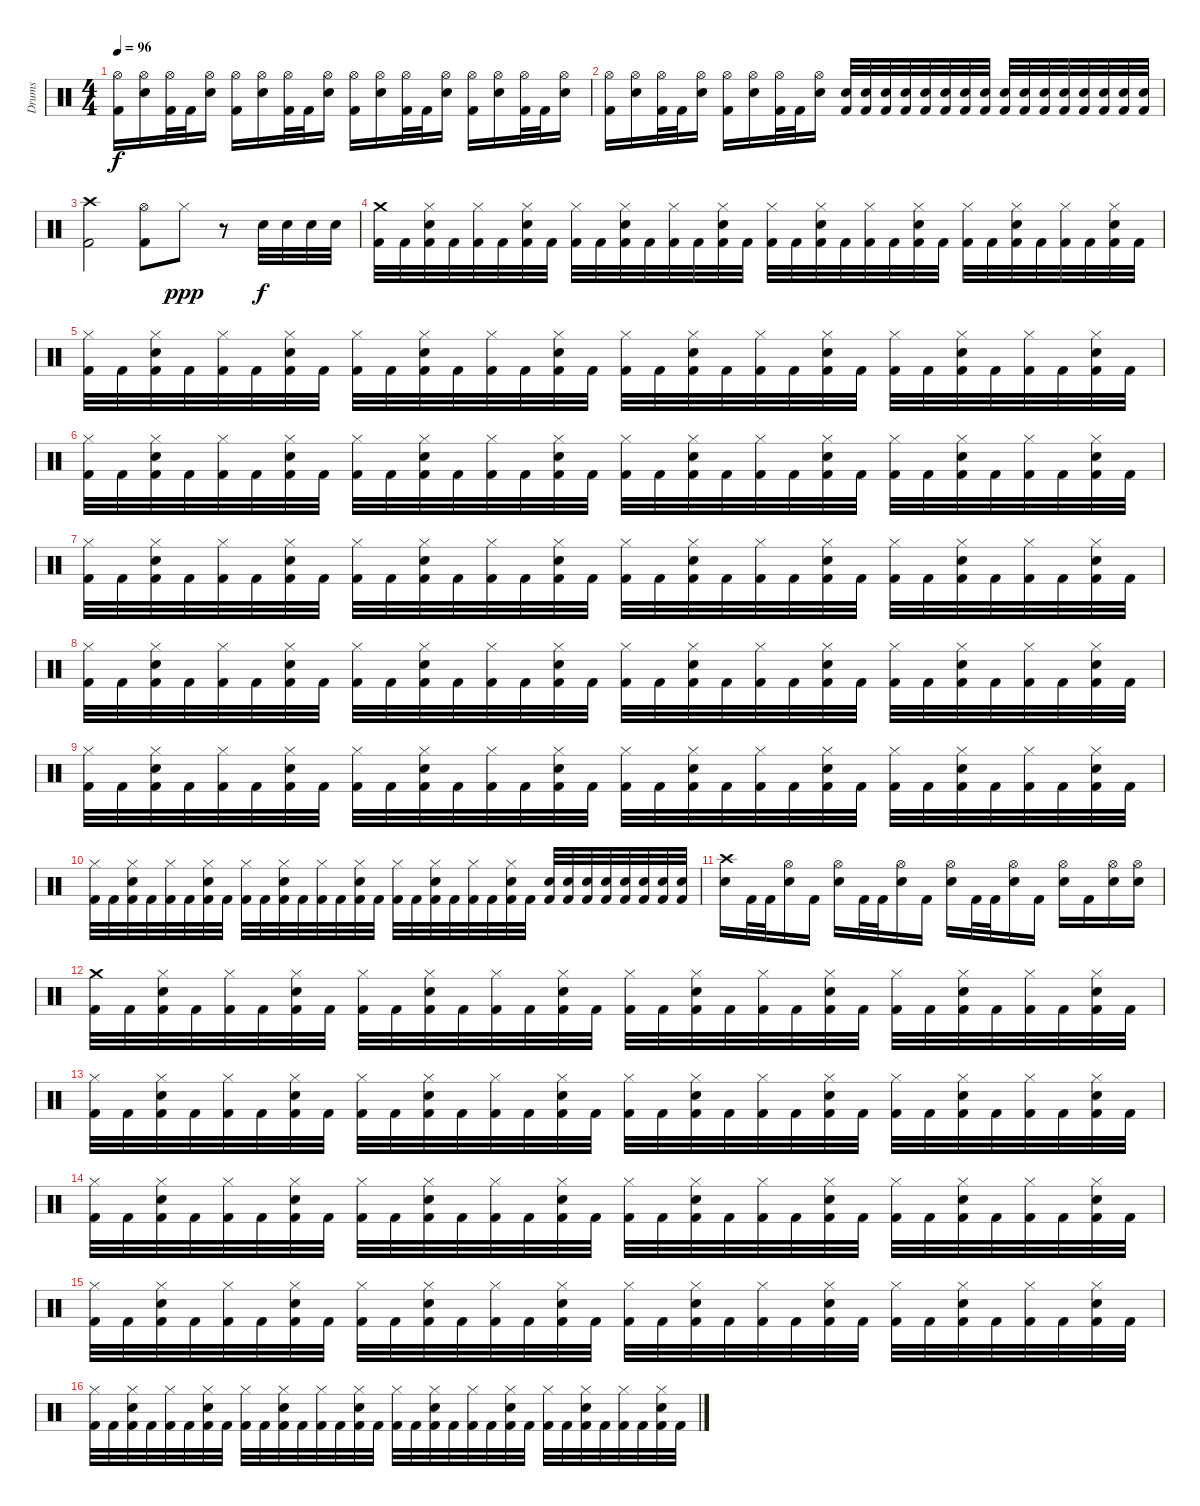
\track ("Drums" "Drums") {instrument percussion}
\staff {score}
\articulation defaults
\ts (4 4)
\tempo 96
\clef neutral
\ks c
("Kick (hit) 2" "Hi-Hat (open)").16{dy f} ("Snare (hit) 2" "Hi-Hat (open)").16 ("Kick (hit) 2" "Hi-Hat (open)").32 "Kick (hit) 2".32 ("Snare (hit) 2" "Hi-Hat (open)").16 ("Kick (hit) 2" "Hi-Hat (open)").16 ("Snare (hit) 2" "Hi-Hat (open)").16 ("Kick (hit) 2" "Hi-Hat (open)").32 "Kick (hit) 2".32 ("Snare (hit) 2" "Hi-Hat (open)").16 ("Kick (hit) 2" "Hi-Hat (open)").16 ("Snare (hit) 2" "Hi-Hat (open)").16 ("Kick (hit) 2" "Hi-Hat (open)").32 "Kick (hit) 2".32 ("Snare (hit) 2" "Hi-Hat (open)").16 ("Kick (hit) 2" "Hi-Hat (open)").16 ("Snare (hit) 2" "Hi-Hat (open)").16 ("Kick (hit) 2" "Hi-Hat (open)").32 "Kick (hit) 2".32 ("Snare (hit) 2" "Hi-Hat (open)").16 |
("Kick (hit) 2" "Hi-Hat (open)").16 ("Snare (hit) 2" "Hi-Hat (open)").16 ("Kick (hit) 2" "Hi-Hat (open)").32 "Kick (hit) 2".32 ("Snare (hit) 2" "Hi-Hat (open)").16 ("Kick (hit) 2" "Hi-Hat (open)").16 ("Snare (hit) 2" "Hi-Hat (open)").16 ("Kick (hit) 2" "Hi-Hat (open)").32 "Kick (hit) 2".32 ("Snare (hit) 2" "Hi-Hat (open)").16 ("Kick (hit) 2" "Snare (hit) 2").32 ("Kick (hit) 2" "Snare (hit) 2").32 ("Kick (hit) 2" "Snare (hit) 2").32 ("Kick (hit) 2" "Snare (hit) 2").32 ("Kick (hit) 2" "Snare (hit) 2").32 ("Kick (hit) 2" "Snare (hit) 2").32 ("Kick (hit) 2" "Snare (hit) 2").32 ("Kick (hit) 2" "Snare (hit) 2").32 ("Kick (hit) 2" "Snare (hit) 2").32 ("Kick (hit) 2" "Snare (hit) 2").32 ("Kick (hit) 2" "Snare (hit) 2").32 ("Kick (hit) 2" "Snare (hit) 2").32 ("Kick (hit) 2" "Snare (hit) 2").32 ("Kick (hit) 2" "Snare (hit) 2").32 ("Kick (hit) 2" "Snare (hit) 2").32 ("Kick (hit) 2" "Snare (hit) 2").32 |
\section ("" "")
("Kick (hit) 2" "Crash high (hit)").2 ("Kick (hit) 2" "Hi-Hat (open)").8 "Hi-Hat (closed)".8{dy ppp} r.8 "Snare (hit) 2".32{dy f} "Snare (hit) 2".32 "Snare (hit) 2".32 "Snare (hit) 2".32 |
("Kick (hit) 2" "Crash medium (hit)").32 "Kick (hit) 2".32 ("Kick (hit) 2" "Snare (hit) 2" "Hi-Hat (closed)").32 "Kick (hit) 2".32 ("Kick (hit) 2" "Hi-Hat (closed)").32 "Kick (hit) 2".32 ("Kick (hit) 2" "Snare (hit) 2" "Hi-Hat (closed)").32 "Kick (hit) 2".32 ("Kick (hit) 2" "Hi-Hat (closed)").32 "Kick (hit) 2".32 ("Kick (hit) 2" "Snare (hit) 2" "Hi-Hat (closed)").32 "Kick (hit) 2".32 ("Kick (hit) 2" "Hi-Hat (closed)").32 "Kick (hit) 2".32 ("Kick (hit) 2" "Snare (hit) 2" "Hi-Hat (closed)").32 "Kick (hit) 2".32 ("Kick (hit) 2" "Hi-Hat (closed)").32 "Kick (hit) 2".32 ("Kick (hit) 2" "Snare (hit) 2" "Hi-Hat (closed)").32 "Kick (hit) 2".32 ("Kick (hit) 2" "Hi-Hat (closed)").32 "Kick (hit) 2".32 ("Kick (hit) 2" "Snare (hit) 2" "Hi-Hat (closed)").32 "Kick (hit) 2".32 ("Kick (hit) 2" "Hi-Hat (closed)").32 "Kick (hit) 2".32 ("Kick (hit) 2" "Snare (hit) 2" "Hi-Hat (closed)").32 "Kick (hit) 2".32 ("Kick (hit) 2" "Hi-Hat (closed)").32 "Kick (hit) 2".32 ("Kick (hit) 2" "Snare (hit) 2" "Hi-Hat (closed)").32 "Kick (hit) 2".32 |
("Kick (hit) 2" "Hi-Hat (closed)").32 "Kick (hit) 2".32 ("Kick (hit) 2" "Snare (hit) 2" "Hi-Hat (closed)").32 "Kick (hit) 2".32 ("Kick (hit) 2" "Hi-Hat (closed)").32 "Kick (hit) 2".32 ("Kick (hit) 2" "Snare (hit) 2" "Hi-Hat (closed)").32 "Kick (hit) 2".32 ("Kick (hit) 2" "Hi-Hat (closed)").32 "Kick (hit) 2".32 ("Kick (hit) 2" "Snare (hit) 2" "Hi-Hat (closed)").32 "Kick (hit) 2".32 ("Kick (hit) 2" "Hi-Hat (closed)").32 "Kick (hit) 2".32 ("Kick (hit) 2" "Snare (hit) 2" "Hi-Hat (closed)").32 "Kick (hit) 2".32 ("Kick (hit) 2" "Hi-Hat (closed)").32 "Kick (hit) 2".32 ("Kick (hit) 2" "Snare (hit) 2" "Hi-Hat (closed)").32 "Kick (hit) 2".32 ("Kick (hit) 2" "Hi-Hat (closed)").32 "Kick (hit) 2".32 ("Kick (hit) 2" "Snare (hit) 2" "Hi-Hat (closed)").32 "Kick (hit) 2".32 ("Kick (hit) 2" "Hi-Hat (closed)").32 "Kick (hit) 2".32 ("Kick (hit) 2" "Snare (hit) 2" "Hi-Hat (closed)").32 "Kick (hit) 2".32 ("Kick (hit) 2" "Hi-Hat (closed)").32 "Kick (hit) 2".32 ("Kick (hit) 2" "Snare (hit) 2" "Hi-Hat (closed)").32 "Kick (hit) 2".32 |
("Kick (hit) 2" "Hi-Hat (closed)").32 "Kick (hit) 2".32 ("Kick (hit) 2" "Snare (hit) 2" "Hi-Hat (closed)").32 "Kick (hit) 2".32 ("Kick (hit) 2" "Hi-Hat (closed)").32 "Kick (hit) 2".32 ("Kick (hit) 2" "Snare (hit) 2" "Hi-Hat (closed)").32 "Kick (hit) 2".32 ("Kick (hit) 2" "Hi-Hat (closed)").32 "Kick (hit) 2".32 ("Kick (hit) 2" "Snare (hit) 2" "Hi-Hat (closed)").32 "Kick (hit) 2".32 ("Kick (hit) 2" "Hi-Hat (closed)").32 "Kick (hit) 2".32 ("Kick (hit) 2" "Snare (hit) 2" "Hi-Hat (closed)").32 "Kick (hit) 2".32 ("Kick (hit) 2" "Hi-Hat (closed)").32 "Kick (hit) 2".32 ("Kick (hit) 2" "Snare (hit) 2" "Hi-Hat (closed)").32 "Kick (hit) 2".32 ("Kick (hit) 2" "Hi-Hat (closed)").32 "Kick (hit) 2".32 ("Kick (hit) 2" "Snare (hit) 2" "Hi-Hat (closed)").32 "Kick (hit) 2".32 ("Kick (hit) 2" "Hi-Hat (closed)").32 "Kick (hit) 2".32 ("Kick (hit) 2" "Snare (hit) 2" "Hi-Hat (closed)").32 "Kick (hit) 2".32 ("Kick (hit) 2" "Hi-Hat (closed)").32 "Kick (hit) 2".32 ("Kick (hit) 2" "Snare (hit) 2" "Hi-Hat (closed)").32 "Kick (hit) 2".32 |
("Kick (hit) 2" "Hi-Hat (closed)").32 "Kick (hit) 2".32 ("Kick (hit) 2" "Snare (hit) 2" "Hi-Hat (closed)").32 "Kick (hit) 2".32 ("Kick (hit) 2" "Hi-Hat (closed)").32 "Kick (hit) 2".32 ("Kick (hit) 2" "Snare (hit) 2" "Hi-Hat (closed)").32 "Kick (hit) 2".32 ("Kick (hit) 2" "Hi-Hat (closed)").32 "Kick (hit) 2".32 ("Kick (hit) 2" "Snare (hit) 2" "Hi-Hat (closed)").32 "Kick (hit) 2".32 ("Kick (hit) 2" "Hi-Hat (closed)").32 "Kick (hit) 2".32 ("Kick (hit) 2" "Snare (hit) 2" "Hi-Hat (closed)").32 "Kick (hit) 2".32 ("Kick (hit) 2" "Hi-Hat (closed)").32 "Kick (hit) 2".32 ("Kick (hit) 2" "Snare (hit) 2" "Hi-Hat (closed)").32 "Kick (hit) 2".32 ("Kick (hit) 2" "Hi-Hat (closed)").32 "Kick (hit) 2".32 ("Kick (hit) 2" "Snare (hit) 2" "Hi-Hat (closed)").32 "Kick (hit) 2".32 ("Kick (hit) 2" "Hi-Hat (closed)").32 "Kick (hit) 2".32 ("Kick (hit) 2" "Snare (hit) 2" "Hi-Hat (closed)").32 "Kick (hit) 2".32 ("Kick (hit) 2" "Hi-Hat (closed)").32 "Kick (hit) 2".32 ("Kick (hit) 2" "Snare (hit) 2" "Hi-Hat (closed)").32 "Kick (hit) 2".32 |
("Kick (hit) 2" "Hi-Hat (closed)").32 "Kick (hit) 2".32 ("Kick (hit) 2" "Snare (hit) 2" "Hi-Hat (closed)").32 "Kick (hit) 2".32 ("Kick (hit) 2" "Hi-Hat (closed)").32 "Kick (hit) 2".32 ("Kick (hit) 2" "Snare (hit) 2" "Hi-Hat (closed)").32 "Kick (hit) 2".32 ("Kick (hit) 2" "Hi-Hat (closed)").32 "Kick (hit) 2".32 ("Kick (hit) 2" "Snare (hit) 2" "Hi-Hat (closed)").32 "Kick (hit) 2".32 ("Kick (hit) 2" "Hi-Hat (closed)").32 "Kick (hit) 2".32 ("Kick (hit) 2" "Snare (hit) 2" "Hi-Hat (closed)").32 "Kick (hit) 2".32 ("Kick (hit) 2" "Hi-Hat (closed)").32 "Kick (hit) 2".32 ("Kick (hit) 2" "Snare (hit) 2" "Hi-Hat (closed)").32 "Kick (hit) 2".32 ("Kick (hit) 2" "Hi-Hat (closed)").32 "Kick (hit) 2".32 ("Kick (hit) 2" "Snare (hit) 2" "Hi-Hat (closed)").32 "Kick (hit) 2".32 ("Kick (hit) 2" "Hi-Hat (closed)").32 "Kick (hit) 2".32 ("Kick (hit) 2" "Snare (hit) 2" "Hi-Hat (closed)").32 "Kick (hit) 2".32 ("Kick (hit) 2" "Hi-Hat (closed)").32 "Kick (hit) 2".32 ("Kick (hit) 2" "Snare (hit) 2" "Hi-Hat (closed)").32 "Kick (hit) 2".32 |
("Kick (hit) 2" "Hi-Hat (closed)").32 "Kick (hit) 2".32 ("Kick (hit) 2" "Snare (hit) 2" "Hi-Hat (closed)").32 "Kick (hit) 2".32 ("Kick (hit) 2" "Hi-Hat (closed)").32 "Kick (hit) 2".32 ("Kick (hit) 2" "Snare (hit) 2" "Hi-Hat (closed)").32 "Kick (hit) 2".32 ("Kick (hit) 2" "Hi-Hat (closed)").32 "Kick (hit) 2".32 ("Kick (hit) 2" "Snare (hit) 2" "Hi-Hat (closed)").32 "Kick (hit) 2".32 ("Kick (hit) 2" "Hi-Hat (closed)").32 "Kick (hit) 2".32 ("Kick (hit) 2" "Snare (hit) 2" "Hi-Hat (closed)").32 "Kick (hit) 2".32 ("Kick (hit) 2" "Hi-Hat (closed)").32 "Kick (hit) 2".32 ("Kick (hit) 2" "Snare (hit) 2" "Hi-Hat (closed)").32 "Kick (hit) 2".32 ("Kick (hit) 2" "Hi-Hat (closed)").32 "Kick (hit) 2".32 ("Kick (hit) 2" "Snare (hit) 2" "Hi-Hat (closed)").32 "Kick (hit) 2".32 ("Kick (hit) 2" "Hi-Hat (closed)").32 "Kick (hit) 2".32 ("Kick (hit) 2" "Snare (hit) 2" "Hi-Hat (closed)").32 "Kick (hit) 2".32 ("Kick (hit) 2" "Hi-Hat (closed)").32 "Kick (hit) 2".32 ("Kick (hit) 2" "Snare (hit) 2" "Hi-Hat (closed)").32 "Kick (hit) 2".32 |
("Kick (hit) 2" "Hi-Hat (closed)").32 "Kick (hit) 2".32 ("Kick (hit) 2" "Snare (hit) 2" "Hi-Hat (closed)").32 "Kick (hit) 2".32 ("Kick (hit) 2" "Hi-Hat (closed)").32 "Kick (hit) 2".32 ("Kick (hit) 2" "Snare (hit) 2" "Hi-Hat (closed)").32 "Kick (hit) 2".32 ("Kick (hit) 2" "Hi-Hat (closed)").32 "Kick (hit) 2".32 ("Kick (hit) 2" "Snare (hit) 2" "Hi-Hat (closed)").32 "Kick (hit) 2".32 ("Kick (hit) 2" "Hi-Hat (closed)").32 "Kick (hit) 2".32 ("Kick (hit) 2" "Snare (hit) 2" "Hi-Hat (closed)").32 "Kick (hit) 2".32 ("Kick (hit) 2" "Hi-Hat (closed)").32 "Kick (hit) 2".32 ("Kick (hit) 2" "Snare (hit) 2" "Hi-Hat (closed)").32 "Kick (hit) 2".32 ("Kick (hit) 2" "Hi-Hat (closed)").32 "Kick (hit) 2".32 ("Kick (hit) 2" "Snare (hit) 2" "Hi-Hat (closed)").32 "Kick (hit) 2".32 ("Kick (hit) 2" "Snare (hit) 2").32 ("Kick (hit) 2" "Snare (hit) 2").32 ("Kick (hit) 2" "Snare (hit) 2").32 ("Kick (hit) 2" "Snare (hit) 2").32 ("Kick (hit) 2" "Snare (hit) 2").32 ("Kick (hit) 2" "Snare (hit) 2").32 ("Kick (hit) 2" "Snare (hit) 2").32 ("Kick (hit) 2" "Snare (hit) 2").32 |
("Snare (hit) 2" "Crash high (hit)").16 "Kick (hit) 2".32 "Kick (hit) 2".32 ("Snare (hit) 2" "Hi-Hat (open)").16 "Kick (hit) 2".16 ("Snare (hit) 2" "Hi-Hat (open)").16 "Kick (hit) 2".32 "Kick (hit) 2".32 ("Snare (hit) 2" "Hi-Hat (open)").16 "Kick (hit) 2".16 ("Snare (hit) 2" "Hi-Hat (open)").16 "Kick (hit) 2".32 "Kick (hit) 2".32 ("Snare (hit) 2" "Hi-Hat (open)").16 "Kick (hit) 2".16 ("Snare (hit) 2" "Hi-Hat (open)").16 "Kick (hit) 2".16 ("Snare (hit) 2" "Hi-Hat (open)").16 ("Snare (hit) 2" "Hi-Hat (open)").16 |
("Kick (hit) 2" "Crash medium (hit)").32 "Kick (hit) 2".32 ("Kick (hit) 2" "Snare (hit) 2" "Hi-Hat (closed)").32 "Kick (hit) 2".32 ("Kick (hit) 2" "Hi-Hat (closed)").32 "Kick (hit) 2".32 ("Kick (hit) 2" "Snare (hit) 2" "Hi-Hat (closed)").32 "Kick (hit) 2".32 ("Kick (hit) 2" "Hi-Hat (closed)").32 "Kick (hit) 2".32 ("Kick (hit) 2" "Snare (hit) 2" "Hi-Hat (closed)").32 "Kick (hit) 2".32 ("Kick (hit) 2" "Hi-Hat (closed)").32 "Kick (hit) 2".32 ("Kick (hit) 2" "Snare (hit) 2" "Hi-Hat (closed)").32 "Kick (hit) 2".32 ("Kick (hit) 2" "Hi-Hat (closed)").32 "Kick (hit) 2".32 ("Kick (hit) 2" "Snare (hit) 2" "Hi-Hat (closed)").32 "Kick (hit) 2".32 ("Kick (hit) 2" "Hi-Hat (closed)").32 "Kick (hit) 2".32 ("Kick (hit) 2" "Snare (hit) 2" "Hi-Hat (closed)").32 "Kick (hit) 2".32 ("Kick (hit) 2" "Hi-Hat (closed)").32 "Kick (hit) 2".32 ("Kick (hit) 2" "Snare (hit) 2" "Hi-Hat (closed)").32 "Kick (hit) 2".32 ("Kick (hit) 2" "Hi-Hat (closed)").32 "Kick (hit) 2".32 ("Kick (hit) 2" "Snare (hit) 2" "Hi-Hat (closed)").32 "Kick (hit) 2".32 |
("Kick (hit) 2" "Hi-Hat (closed)").32 "Kick (hit) 2".32 ("Kick (hit) 2" "Snare (hit) 2" "Hi-Hat (closed)").32 "Kick (hit) 2".32 ("Kick (hit) 2" "Hi-Hat (closed)").32 "Kick (hit) 2".32 ("Kick (hit) 2" "Snare (hit) 2" "Hi-Hat (closed)").32 "Kick (hit) 2".32 ("Kick (hit) 2" "Hi-Hat (closed)").32 "Kick (hit) 2".32 ("Kick (hit) 2" "Snare (hit) 2" "Hi-Hat (closed)").32 "Kick (hit) 2".32 ("Kick (hit) 2" "Hi-Hat (closed)").32 "Kick (hit) 2".32 ("Kick (hit) 2" "Snare (hit) 2" "Hi-Hat (closed)").32 "Kick (hit) 2".32 ("Kick (hit) 2" "Hi-Hat (closed)").32 "Kick (hit) 2".32 ("Kick (hit) 2" "Snare (hit) 2" "Hi-Hat (closed)").32 "Kick (hit) 2".32 ("Kick (hit) 2" "Hi-Hat (closed)").32 "Kick (hit) 2".32 ("Kick (hit) 2" "Snare (hit) 2" "Hi-Hat (closed)").32 "Kick (hit) 2".32 ("Kick (hit) 2" "Hi-Hat (closed)").32 "Kick (hit) 2".32 ("Kick (hit) 2" "Snare (hit) 2" "Hi-Hat (closed)").32 "Kick (hit) 2".32 ("Kick (hit) 2" "Hi-Hat (closed)").32 "Kick (hit) 2".32 ("Kick (hit) 2" "Snare (hit) 2" "Hi-Hat (closed)").32 "Kick (hit) 2".32 |
("Kick (hit) 2" "Hi-Hat (closed)").32 "Kick (hit) 2".32 ("Kick (hit) 2" "Snare (hit) 2" "Hi-Hat (closed)").32 "Kick (hit) 2".32 ("Kick (hit) 2" "Hi-Hat (closed)").32 "Kick (hit) 2".32 ("Kick (hit) 2" "Snare (hit) 2" "Hi-Hat (closed)").32 "Kick (hit) 2".32 ("Kick (hit) 2" "Hi-Hat (closed)").32 "Kick (hit) 2".32 ("Kick (hit) 2" "Snare (hit) 2" "Hi-Hat (closed)").32 "Kick (hit) 2".32 ("Kick (hit) 2" "Hi-Hat (closed)").32 "Kick (hit) 2".32 ("Kick (hit) 2" "Snare (hit) 2" "Hi-Hat (closed)").32 "Kick (hit) 2".32 ("Kick (hit) 2" "Hi-Hat (closed)").32 "Kick (hit) 2".32 ("Kick (hit) 2" "Snare (hit) 2" "Hi-Hat (closed)").32 "Kick (hit) 2".32 ("Kick (hit) 2" "Hi-Hat (closed)").32 "Kick (hit) 2".32 ("Kick (hit) 2" "Snare (hit) 2" "Hi-Hat (closed)").32 "Kick (hit) 2".32 ("Kick (hit) 2" "Hi-Hat (closed)").32 "Kick (hit) 2".32 ("Kick (hit) 2" "Snare (hit) 2" "Hi-Hat (closed)").32 "Kick (hit) 2".32 ("Kick (hit) 2" "Hi-Hat (closed)").32 "Kick (hit) 2".32 ("Kick (hit) 2" "Snare (hit) 2" "Hi-Hat (closed)").32 "Kick (hit) 2".32 |
("Kick (hit) 2" "Hi-Hat (closed)").32 "Kick (hit) 2".32 ("Kick (hit) 2" "Snare (hit) 2" "Hi-Hat (closed)").32 "Kick (hit) 2".32 ("Kick (hit) 2" "Hi-Hat (closed)").32 "Kick (hit) 2".32 ("Kick (hit) 2" "Snare (hit) 2" "Hi-Hat (closed)").32 "Kick (hit) 2".32 ("Kick (hit) 2" "Hi-Hat (closed)").32 "Kick (hit) 2".32 ("Kick (hit) 2" "Snare (hit) 2" "Hi-Hat (closed)").32 "Kick (hit) 2".32 ("Kick (hit) 2" "Hi-Hat (closed)").32 "Kick (hit) 2".32 ("Kick (hit) 2" "Snare (hit) 2" "Hi-Hat (closed)").32 "Kick (hit) 2".32 ("Kick (hit) 2" "Hi-Hat (closed)").32 "Kick (hit) 2".32 ("Kick (hit) 2" "Snare (hit) 2" "Hi-Hat (closed)").32 "Kick (hit) 2".32 ("Kick (hit) 2" "Hi-Hat (closed)").32 "Kick (hit) 2".32 ("Kick (hit) 2" "Snare (hit) 2" "Hi-Hat (closed)").32 "Kick (hit) 2".32 ("Kick (hit) 2" "Hi-Hat (closed)").32 "Kick (hit) 2".32 ("Kick (hit) 2" "Snare (hit) 2" "Hi-Hat (closed)").32 "Kick (hit) 2".32 ("Kick (hit) 2" "Hi-Hat (closed)").32 "Kick (hit) 2".32 ("Kick (hit) 2" "Snare (hit) 2" "Hi-Hat (closed)").32 "Kick (hit) 2".32 |
("Kick (hit) 2" "Hi-Hat (closed)").32 "Kick (hit) 2".32 ("Kick (hit) 2" "Snare (hit) 2" "Hi-Hat (closed)").32 "Kick (hit) 2".32 ("Kick (hit) 2" "Hi-Hat (closed)").32 "Kick (hit) 2".32 ("Kick (hit) 2" "Snare (hit) 2" "Hi-Hat (closed)").32 "Kick (hit) 2".32 ("Kick (hit) 2" "Hi-Hat (closed)").32 "Kick (hit) 2".32 ("Kick (hit) 2" "Snare (hit) 2" "Hi-Hat (closed)").32 "Kick (hit) 2".32 ("Kick (hit) 2" "Hi-Hat (closed)").32 "Kick (hit) 2".32 ("Kick (hit) 2" "Snare (hit) 2" "Hi-Hat (closed)").32 "Kick (hit) 2".32 ("Kick (hit) 2" "Hi-Hat (closed)").32 "Kick (hit) 2".32 ("Kick (hit) 2" "Snare (hit) 2" "Hi-Hat (closed)").32 "Kick (hit) 2".32 ("Kick (hit) 2" "Hi-Hat (closed)").32 "Kick (hit) 2".32 ("Kick (hit) 2" "Snare (hit) 2" "Hi-Hat (closed)").32 "Kick (hit) 2".32 ("Kick (hit) 2" "Hi-Hat (closed)").32 "Kick (hit) 2".32 ("Kick (hit) 2" "Snare (hit) 2" "Hi-Hat (closed)").32 "Kick (hit) 2".32 ("Kick (hit) 2" "Hi-Hat (closed)").32 "Kick (hit) 2".32 ("Kick (hit) 2" "Snare (hit) 2" "Hi-Hat (closed)").32 "Kick (hit) 2".32
